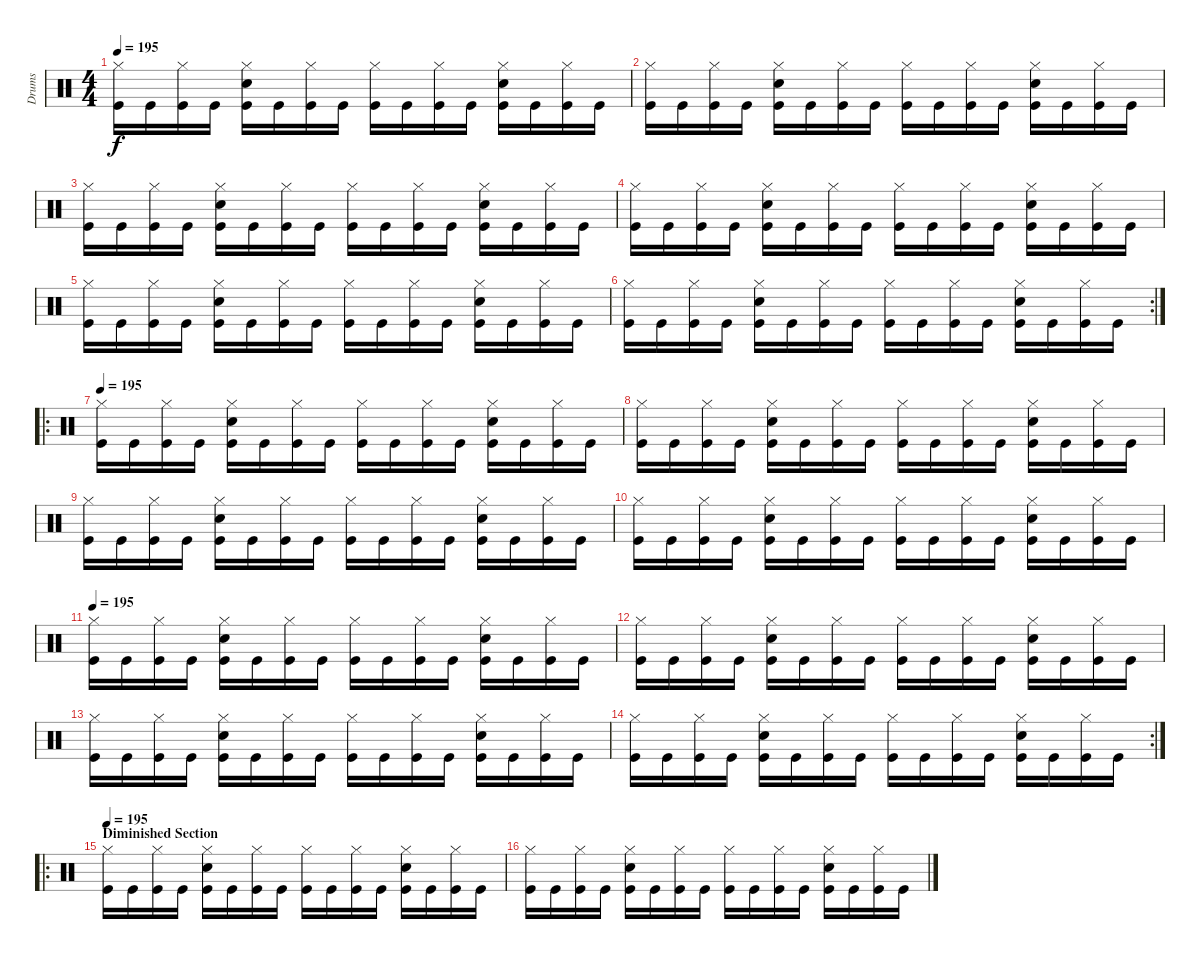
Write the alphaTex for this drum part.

\track ("Drums" "Drums") {instrument percussion}
\staff {score}
\articulation defaults
\ts (4 4)
\tempo 195
\clef neutral
\ks c
("Hi-Hat (closed)" "Kick (hit)").16{dy f} "Kick (hit)".16 ("Hi-Hat (closed)" "Kick (hit)").16 "Kick (hit)".16 ("Hi-Hat (closed)" "Snare (hit) 2" "Kick (hit)").16 "Kick (hit)".16 ("Hi-Hat (closed)" "Kick (hit)").16 "Kick (hit)".16 ("Hi-Hat (closed)" "Kick (hit)").16 "Kick (hit)".16 ("Hi-Hat (closed)" "Kick (hit)").16 "Kick (hit)".16 ("Hi-Hat (closed)" "Snare (hit) 2" "Kick (hit)").16 "Kick (hit)".16 ("Hi-Hat (closed)" "Kick (hit)").16 "Kick (hit)".16 |
("Hi-Hat (closed)" "Kick (hit)").16 "Kick (hit)".16 ("Hi-Hat (closed)" "Kick (hit)").16 "Kick (hit)".16 ("Hi-Hat (closed)" "Snare (hit) 2" "Kick (hit)").16 "Kick (hit)".16 ("Hi-Hat (closed)" "Kick (hit)").16 "Kick (hit)".16 ("Hi-Hat (closed)" "Kick (hit)").16 "Kick (hit)".16 ("Hi-Hat (closed)" "Kick (hit)").16 "Kick (hit)".16 ("Hi-Hat (closed)" "Snare (hit) 2" "Kick (hit)").16 "Kick (hit)".16 ("Hi-Hat (closed)" "Kick (hit)").16 "Kick (hit)".16 |
("Hi-Hat (closed)" "Kick (hit)").16 "Kick (hit)".16 ("Hi-Hat (closed)" "Kick (hit)").16 "Kick (hit)".16 ("Hi-Hat (closed)" "Snare (hit) 2" "Kick (hit)").16 "Kick (hit)".16 ("Hi-Hat (closed)" "Kick (hit)").16 "Kick (hit)".16 ("Hi-Hat (closed)" "Kick (hit)").16 "Kick (hit)".16 ("Hi-Hat (closed)" "Kick (hit)").16 "Kick (hit)".16 ("Hi-Hat (closed)" "Snare (hit) 2" "Kick (hit)").16 "Kick (hit)".16 ("Hi-Hat (closed)" "Kick (hit)").16 "Kick (hit)".16 |
("Hi-Hat (closed)" "Kick (hit)").16 "Kick (hit)".16 ("Hi-Hat (closed)" "Kick (hit)").16 "Kick (hit)".16 ("Hi-Hat (closed)" "Snare (hit) 2" "Kick (hit)").16 "Kick (hit)".16 ("Hi-Hat (closed)" "Kick (hit)").16 "Kick (hit)".16 ("Hi-Hat (closed)" "Kick (hit)").16 "Kick (hit)".16 ("Hi-Hat (closed)" "Kick (hit)").16 "Kick (hit)".16 ("Hi-Hat (closed)" "Snare (hit) 2" "Kick (hit)").16 "Kick (hit)".16 ("Hi-Hat (closed)" "Kick (hit)").16 "Kick (hit)".16 |
("Hi-Hat (closed)" "Kick (hit)").16 "Kick (hit)".16 ("Hi-Hat (closed)" "Kick (hit)").16 "Kick (hit)".16 ("Hi-Hat (closed)" "Snare (hit) 2" "Kick (hit)").16 "Kick (hit)".16 ("Hi-Hat (closed)" "Kick (hit)").16 "Kick (hit)".16 ("Hi-Hat (closed)" "Kick (hit)").16 "Kick (hit)".16 ("Hi-Hat (closed)" "Kick (hit)").16 "Kick (hit)".16 ("Hi-Hat (closed)" "Snare (hit) 2" "Kick (hit)").16 "Kick (hit)".16 ("Hi-Hat (closed)" "Kick (hit)").16 "Kick (hit)".16 |
\rc 2
("Hi-Hat (closed)" "Kick (hit)").16 "Kick (hit)".16 ("Hi-Hat (closed)" "Kick (hit)").16 "Kick (hit)".16 ("Hi-Hat (closed)" "Snare (hit) 2" "Kick (hit)").16 "Kick (hit)".16 ("Hi-Hat (closed)" "Kick (hit)").16 "Kick (hit)".16 ("Hi-Hat (closed)" "Kick (hit)").16 "Kick (hit)".16 ("Hi-Hat (closed)" "Kick (hit)").16 "Kick (hit)".16 ("Hi-Hat (closed)" "Snare (hit) 2" "Kick (hit)").16 "Kick (hit)".16 ("Hi-Hat (closed)" "Kick (hit)").16 "Kick (hit)".16 |
\ro
\tempo 195
("Hi-Hat (closed)" "Kick (hit)").16 "Kick (hit)".16 ("Hi-Hat (closed)" "Kick (hit)").16 "Kick (hit)".16 ("Hi-Hat (closed)" "Snare (hit) 2" "Kick (hit)").16 "Kick (hit)".16 ("Hi-Hat (closed)" "Kick (hit)").16 "Kick (hit)".16 ("Hi-Hat (closed)" "Kick (hit)").16 "Kick (hit)".16 ("Hi-Hat (closed)" "Kick (hit)").16 "Kick (hit)".16 ("Hi-Hat (closed)" "Snare (hit) 2" "Kick (hit)").16 "Kick (hit)".16 ("Hi-Hat (closed)" "Kick (hit)").16 "Kick (hit)".16 |
("Hi-Hat (closed)" "Kick (hit)").16 "Kick (hit)".16 ("Hi-Hat (closed)" "Kick (hit)").16 "Kick (hit)".16 ("Hi-Hat (closed)" "Snare (hit) 2" "Kick (hit)").16 "Kick (hit)".16 ("Hi-Hat (closed)" "Kick (hit)").16 "Kick (hit)".16 ("Hi-Hat (closed)" "Kick (hit)").16 "Kick (hit)".16 ("Hi-Hat (closed)" "Kick (hit)").16 "Kick (hit)".16 ("Hi-Hat (closed)" "Snare (hit) 2" "Kick (hit)").16 "Kick (hit)".16 ("Hi-Hat (closed)" "Kick (hit)").16 "Kick (hit)".16 |
("Hi-Hat (closed)" "Kick (hit)").16 "Kick (hit)".16 ("Hi-Hat (closed)" "Kick (hit)").16 "Kick (hit)".16 ("Hi-Hat (closed)" "Snare (hit) 2" "Kick (hit)").16 "Kick (hit)".16 ("Hi-Hat (closed)" "Kick (hit)").16 "Kick (hit)".16 ("Hi-Hat (closed)" "Kick (hit)").16 "Kick (hit)".16 ("Hi-Hat (closed)" "Kick (hit)").16 "Kick (hit)".16 ("Hi-Hat (closed)" "Snare (hit) 2" "Kick (hit)").16 "Kick (hit)".16 ("Hi-Hat (closed)" "Kick (hit)").16 "Kick (hit)".16 |
("Hi-Hat (closed)" "Kick (hit)").16 "Kick (hit)".16 ("Hi-Hat (closed)" "Kick (hit)").16 "Kick (hit)".16 ("Hi-Hat (closed)" "Snare (hit) 2" "Kick (hit)").16 "Kick (hit)".16 ("Hi-Hat (closed)" "Kick (hit)").16 "Kick (hit)".16 ("Hi-Hat (closed)" "Kick (hit)").16 "Kick (hit)".16 ("Hi-Hat (closed)" "Kick (hit)").16 "Kick (hit)".16 ("Hi-Hat (closed)" "Snare (hit) 2" "Kick (hit)").16 "Kick (hit)".16 ("Hi-Hat (closed)" "Kick (hit)").16 "Kick (hit)".16 |
\tempo 195
("Hi-Hat (closed)" "Kick (hit)").16 "Kick (hit)".16 ("Hi-Hat (closed)" "Kick (hit)").16 "Kick (hit)".16 ("Hi-Hat (closed)" "Snare (hit) 2" "Kick (hit)").16 "Kick (hit)".16 ("Hi-Hat (closed)" "Kick (hit)").16 "Kick (hit)".16 ("Hi-Hat (closed)" "Kick (hit)").16 "Kick (hit)".16 ("Hi-Hat (closed)" "Kick (hit)").16 "Kick (hit)".16 ("Hi-Hat (closed)" "Snare (hit) 2" "Kick (hit)").16 "Kick (hit)".16 ("Hi-Hat (closed)" "Kick (hit)").16 "Kick (hit)".16 |
("Hi-Hat (closed)" "Kick (hit)").16 "Kick (hit)".16 ("Hi-Hat (closed)" "Kick (hit)").16 "Kick (hit)".16 ("Hi-Hat (closed)" "Snare (hit) 2" "Kick (hit)").16 "Kick (hit)".16 ("Hi-Hat (closed)" "Kick (hit)").16 "Kick (hit)".16 ("Hi-Hat (closed)" "Kick (hit)").16 "Kick (hit)".16 ("Hi-Hat (closed)" "Kick (hit)").16 "Kick (hit)".16 ("Hi-Hat (closed)" "Snare (hit) 2" "Kick (hit)").16 "Kick (hit)".16 ("Hi-Hat (closed)" "Kick (hit)").16 "Kick (hit)".16 |
("Hi-Hat (closed)" "Kick (hit)").16 "Kick (hit)".16 ("Hi-Hat (closed)" "Kick (hit)").16 "Kick (hit)".16 ("Hi-Hat (closed)" "Snare (hit) 2" "Kick (hit)").16 "Kick (hit)".16 ("Hi-Hat (closed)" "Kick (hit)").16 "Kick (hit)".16 ("Hi-Hat (closed)" "Kick (hit)").16 "Kick (hit)".16 ("Hi-Hat (closed)" "Kick (hit)").16 "Kick (hit)".16 ("Hi-Hat (closed)" "Snare (hit) 2" "Kick (hit)").16 "Kick (hit)".16 ("Hi-Hat (closed)" "Kick (hit)").16 "Kick (hit)".16 |
\rc 2
("Hi-Hat (closed)" "Kick (hit)").16 "Kick (hit)".16 ("Hi-Hat (closed)" "Kick (hit)").16 "Kick (hit)".16 ("Hi-Hat (closed)" "Snare (hit) 2" "Kick (hit)").16 "Kick (hit)".16 ("Hi-Hat (closed)" "Kick (hit)").16 "Kick (hit)".16 ("Hi-Hat (closed)" "Kick (hit)").16 "Kick (hit)".16 ("Hi-Hat (closed)" "Kick (hit)").16 "Kick (hit)".16 ("Hi-Hat (closed)" "Snare (hit) 2" "Kick (hit)").16 "Kick (hit)".16 ("Hi-Hat (closed)" "Kick (hit)").16 "Kick (hit)".16 |
\ro
\section ("" "Diminished Section")
\tempo 195
("Hi-Hat (closed)" "Kick (hit)").16 "Kick (hit)".16 ("Hi-Hat (closed)" "Kick (hit)").16 "Kick (hit)".16 ("Hi-Hat (closed)" "Snare (hit) 2" "Kick (hit)").16 "Kick (hit)".16 ("Hi-Hat (closed)" "Kick (hit)").16 "Kick (hit)".16 ("Hi-Hat (closed)" "Kick (hit)").16 "Kick (hit)".16 ("Hi-Hat (closed)" "Kick (hit)").16 "Kick (hit)".16 ("Hi-Hat (closed)" "Snare (hit) 2" "Kick (hit)").16 "Kick (hit)".16 ("Hi-Hat (closed)" "Kick (hit)").16 "Kick (hit)".16 |
("Hi-Hat (closed)" "Kick (hit)").16 "Kick (hit)".16 ("Hi-Hat (closed)" "Kick (hit)").16 "Kick (hit)".16 ("Hi-Hat (closed)" "Snare (hit) 2" "Kick (hit)").16 "Kick (hit)".16 ("Hi-Hat (closed)" "Kick (hit)").16 "Kick (hit)".16 ("Hi-Hat (closed)" "Kick (hit)").16 "Kick (hit)".16 ("Hi-Hat (closed)" "Kick (hit)").16 "Kick (hit)".16 ("Hi-Hat (closed)" "Snare (hit) 2" "Kick (hit)").16 "Kick (hit)".16 ("Hi-Hat (closed)" "Kick (hit)").16 "Kick (hit)".16
